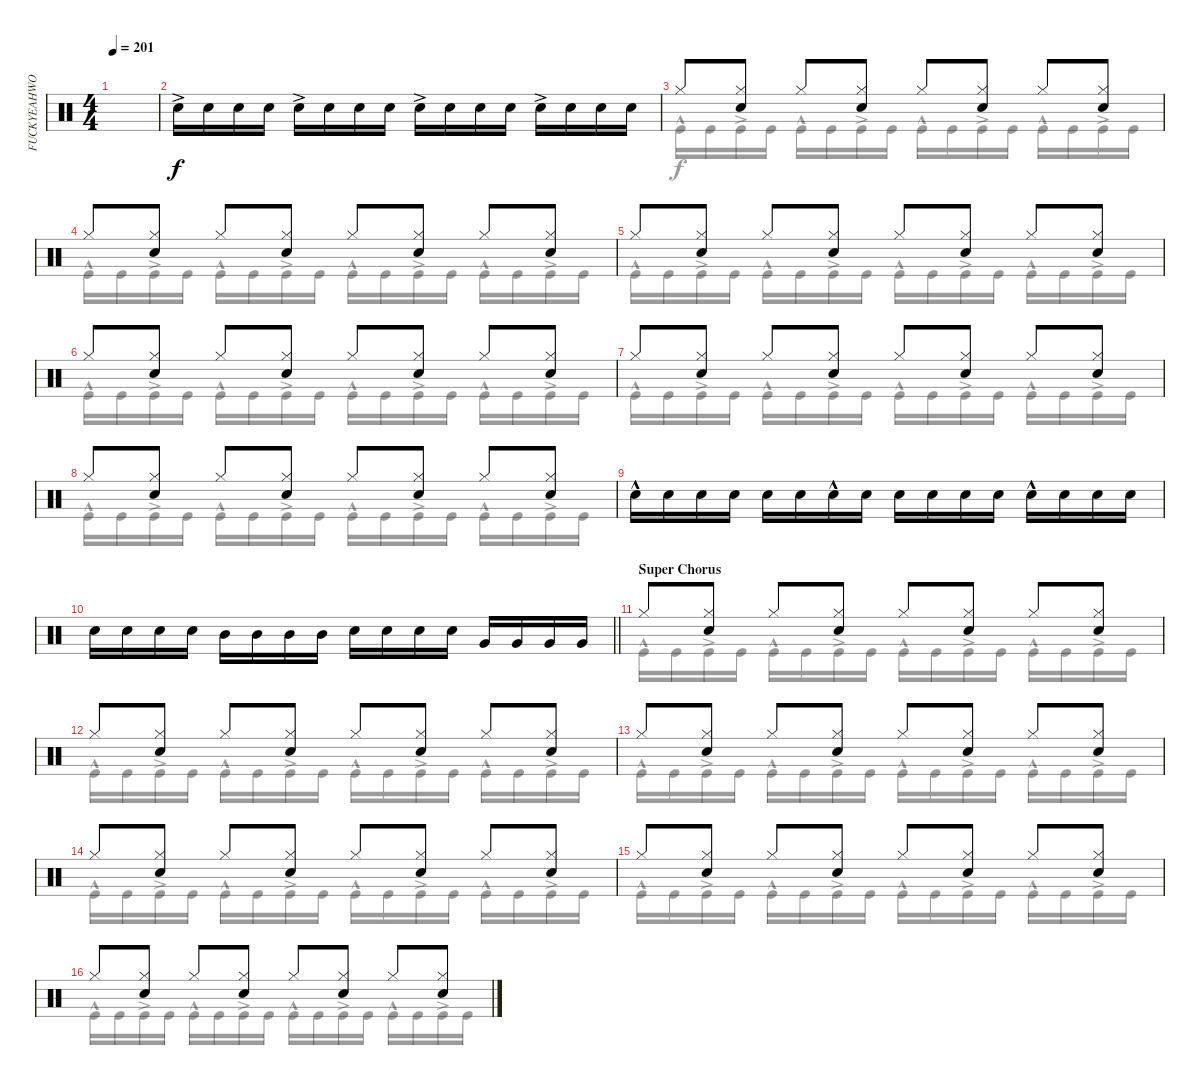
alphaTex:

\track ("FUCKYEAHWOOTDAVEMACKINTOSH(Percussion)" "FUCKYEAHWO") {instrument percussion}
\staff {score}
\articulation defaults
\voice
\ts (4 4)
\tempo 201
\clef neutral
\ks c
|
"Snare (hit) 2"{ac}.16 "Snare (hit) 2".16 "Snare (hit) 2".16 "Snare (hit) 2".16 "Snare (hit) 2"{ac}.16 "Snare (hit) 2".16 "Snare (hit) 2".16 "Snare (hit) 2".16 "Snare (hit) 2"{ac}.16 "Snare (hit) 2".16 "Snare (hit) 2".16 "Snare (hit) 2".16 "Snare (hit) 2"{ac}.16 "Snare (hit) 2".16 "Snare (hit) 2".16 "Snare (hit) 2".16 |
"Hi-Hat (closed)".8 ("Hi-Hat (closed)" "Snare (hit) 2").8 "Hi-Hat (closed)".8 ("Snare (hit) 2" "Hi-Hat (closed)").8 "Hi-Hat (closed)".8 ("Hi-Hat (closed)" "Snare (hit) 2").8 "Hi-Hat (closed)".8 ("Hi-Hat (closed)" "Snare (hit) 2").8 |
"Hi-Hat (closed)".8 ("Hi-Hat (closed)" "Snare (hit) 2").8 "Hi-Hat (closed)".8 ("Snare (hit) 2" "Hi-Hat (closed)").8 "Hi-Hat (closed)".8 ("Hi-Hat (closed)" "Snare (hit) 2").8 "Hi-Hat (closed)".8 ("Hi-Hat (closed)" "Snare (hit) 2").8 |
"Hi-Hat (closed)".8 ("Hi-Hat (closed)" "Snare (hit) 2").8 "Hi-Hat (closed)".8 ("Snare (hit) 2" "Hi-Hat (closed)").8 "Hi-Hat (closed)".8 ("Hi-Hat (closed)" "Snare (hit) 2").8 "Hi-Hat (closed)".8 ("Hi-Hat (closed)" "Snare (hit) 2").8 |
"Hi-Hat (closed)".8 ("Hi-Hat (closed)" "Snare (hit) 2").8 "Hi-Hat (closed)".8 ("Snare (hit) 2" "Hi-Hat (closed)").8 "Hi-Hat (closed)".8 ("Hi-Hat (closed)" "Snare (hit) 2").8 "Hi-Hat (closed)".8 ("Hi-Hat (closed)" "Snare (hit) 2").8 |
"Hi-Hat (closed)".8 ("Hi-Hat (closed)" "Snare (hit) 2").8 "Hi-Hat (closed)".8 ("Snare (hit) 2" "Hi-Hat (closed)").8 "Hi-Hat (closed)".8 ("Hi-Hat (closed)" "Snare (hit) 2").8 "Hi-Hat (closed)".8 ("Hi-Hat (closed)" "Snare (hit) 2").8 |
"Hi-Hat (closed)".8 ("Hi-Hat (closed)" "Snare (hit) 2").8 "Hi-Hat (closed)".8 ("Snare (hit) 2" "Hi-Hat (closed)").8 "Hi-Hat (closed)".8 ("Hi-Hat (closed)" "Snare (hit) 2").8 "Hi-Hat (closed)".8 ("Hi-Hat (closed)" "Snare (hit) 2").8 |
"Snare (hit) 2"{hac}.16 "Snare (hit) 2".16 "Snare (hit) 2".16 "Snare (hit) 2".16 "Snare (hit) 2".16 "Snare (hit) 2".16 "Snare (hit) 2"{hac}.16 "Snare (hit) 2".16 "Snare (hit) 2".16 "Snare (hit) 2".16 "Snare (hit) 2".16 "Snare (hit) 2".16 "Snare (hit) 2"{hac}.16 "Snare (hit) 2".16 "Snare (hit) 2".16 "Snare (hit) 2".16 |
\barLineRight lightlight "Snare (hit) 2".16 "Snare (hit) 2".16 "Snare (hit) 2".16 "Snare (hit) 2".16 "Mid Tom (hit)".16 "Mid Tom (hit)".16 "Mid Tom (hit)".16 "Mid Tom (hit)".16 "Snare (hit) 2".16 "Snare (hit) 2".16 "Snare (hit) 2".16 "Snare (hit) 2".16 "Very Low Tom (hit)".16 "Very Low Tom (hit)".16 "Very Low Tom (hit)".16 "Very Low Tom (hit)".16
|
\section ("" "Super Chorus")
"Hi-Hat (closed)".8 ("Hi-Hat (closed)" "Snare (hit) 2").8 "Hi-Hat (closed)".8 ("Snare (hit) 2" "Hi-Hat (closed)").8 "Hi-Hat (closed)".8 ("Hi-Hat (closed)" "Snare (hit) 2").8 "Hi-Hat (closed)".8 ("Hi-Hat (closed)" "Snare (hit) 2").8 |
"Hi-Hat (closed)".8 ("Hi-Hat (closed)" "Snare (hit) 2").8 "Hi-Hat (closed)".8 ("Snare (hit) 2" "Hi-Hat (closed)").8 "Hi-Hat (closed)".8 ("Hi-Hat (closed)" "Snare (hit) 2").8 "Hi-Hat (closed)".8 ("Hi-Hat (closed)" "Snare (hit) 2").8 |
"Hi-Hat (closed)".8 ("Hi-Hat (closed)" "Snare (hit) 2").8 "Hi-Hat (closed)".8 ("Snare (hit) 2" "Hi-Hat (closed)").8 "Hi-Hat (closed)".8 ("Hi-Hat (closed)" "Snare (hit) 2").8 "Hi-Hat (closed)".8 ("Hi-Hat (closed)" "Snare (hit) 2").8 |
"Hi-Hat (closed)".8 ("Hi-Hat (closed)" "Snare (hit) 2").8 "Hi-Hat (closed)".8 ("Snare (hit) 2" "Hi-Hat (closed)").8 "Hi-Hat (closed)".8 ("Hi-Hat (closed)" "Snare (hit) 2").8 "Hi-Hat (closed)".8 ("Hi-Hat (closed)" "Snare (hit) 2").8 |
"Hi-Hat (closed)".8 ("Hi-Hat (closed)" "Snare (hit) 2").8 "Hi-Hat (closed)".8 ("Snare (hit) 2" "Hi-Hat (closed)").8 "Hi-Hat (closed)".8 ("Hi-Hat (closed)" "Snare (hit) 2").8 "Hi-Hat (closed)".8 ("Hi-Hat (closed)" "Snare (hit) 2").8 |
"Hi-Hat (closed)".8 ("Hi-Hat (closed)" "Snare (hit) 2").8 "Hi-Hat (closed)".8 ("Snare (hit) 2" "Hi-Hat (closed)").8 "Hi-Hat (closed)".8 ("Hi-Hat (closed)" "Snare (hit) 2").8 "Hi-Hat (closed)".8 ("Hi-Hat (closed)" "Snare (hit) 2").8
\voice
\clef neutral
\ottava regular
\simile none
\ks c
|
|
"Kick (hit)"{hac}.16 "Kick (hit)".16 "Kick (hit)"{ac}.16 "Kick (hit)".16 "Kick (hit)"{hac}.16 "Kick (hit)".16 "Kick (hit)"{ac}.16 "Kick (hit)".16 "Kick (hit)"{hac}.16 "Kick (hit)".16 "Kick (hit)"{ac}.16 "Kick (hit)".16 "Kick (hit)"{hac}.16 "Kick (hit)".16 "Kick (hit)"{ac}.16 "Kick (hit)".16 |
"Kick (hit)"{hac}.16 "Kick (hit)".16 "Kick (hit)"{ac}.16 "Kick (hit)".16 "Kick (hit)"{hac}.16 "Kick (hit)".16 "Kick (hit)"{ac}.16 "Kick (hit)".16 "Kick (hit)"{hac}.16 "Kick (hit)".16 "Kick (hit)"{ac}.16 "Kick (hit)".16 "Kick (hit)"{hac}.16 "Kick (hit)".16 "Kick (hit)"{ac}.16 "Kick (hit)".16 |
"Kick (hit)"{hac}.16 "Kick (hit)".16 "Kick (hit)"{ac}.16 "Kick (hit)".16 "Kick (hit)"{hac}.16 "Kick (hit)".16 "Kick (hit)"{ac}.16 "Kick (hit)".16 "Kick (hit)"{hac}.16 "Kick (hit)".16 "Kick (hit)"{ac}.16 "Kick (hit)".16 "Kick (hit)"{hac}.16 "Kick (hit)".16 "Kick (hit)"{ac}.16 "Kick (hit)".16 |
"Kick (hit)"{hac}.16 "Kick (hit)".16 "Kick (hit)"{ac}.16 "Kick (hit)".16 "Kick (hit)"{hac}.16 "Kick (hit)".16 "Kick (hit)"{ac}.16 "Kick (hit)".16 "Kick (hit)"{hac}.16 "Kick (hit)".16 "Kick (hit)"{ac}.16 "Kick (hit)".16 "Kick (hit)"{hac}.16 "Kick (hit)".16 "Kick (hit)"{ac}.16 "Kick (hit)".16 |
"Kick (hit)"{hac}.16 "Kick (hit)".16 "Kick (hit)"{ac}.16 "Kick (hit)".16 "Kick (hit)"{hac}.16 "Kick (hit)".16 "Kick (hit)"{ac}.16 "Kick (hit)".16 "Kick (hit)"{hac}.16 "Kick (hit)".16 "Kick (hit)"{ac}.16 "Kick (hit)".16 "Kick (hit)"{hac}.16 "Kick (hit)".16 "Kick (hit)"{ac}.16 "Kick (hit)".16 |
"Kick (hit)"{hac}.16 "Kick (hit)".16 "Kick (hit)"{ac}.16 "Kick (hit)".16 "Kick (hit)"{hac}.16 "Kick (hit)".16 "Kick (hit)"{ac}.16 "Kick (hit)".16 "Kick (hit)"{hac}.16 "Kick (hit)".16 "Kick (hit)"{ac}.16 "Kick (hit)".16 "Kick (hit)"{hac}.16 "Kick (hit)".16 "Kick (hit)"{ac}.16 "Kick (hit)".16 |
|
\barLineRight lightlight
|
"Kick (hit)"{hac}.16 "Kick (hit)".16 "Kick (hit)"{ac}.16 "Kick (hit)".16 "Kick (hit)"{hac}.16 "Kick (hit)".16 "Kick (hit)"{ac}.16 "Kick (hit)".16 "Kick (hit)"{hac}.16 "Kick (hit)".16 "Kick (hit)"{ac}.16 "Kick (hit)".16 "Kick (hit)"{hac}.16 "Kick (hit)".16 "Kick (hit)"{ac}.16 "Kick (hit)".16 |
"Kick (hit)"{hac}.16 "Kick (hit)".16 "Kick (hit)"{ac}.16 "Kick (hit)".16 "Kick (hit)"{hac}.16 "Kick (hit)".16 "Kick (hit)"{ac}.16 "Kick (hit)".16 "Kick (hit)"{hac}.16 "Kick (hit)".16 "Kick (hit)"{ac}.16 "Kick (hit)".16 "Kick (hit)"{hac}.16 "Kick (hit)".16 "Kick (hit)"{ac}.16 "Kick (hit)".16 |
"Kick (hit)"{hac}.16 "Kick (hit)".16 "Kick (hit)"{ac}.16 "Kick (hit)".16 "Kick (hit)"{hac}.16 "Kick (hit)".16 "Kick (hit)"{ac}.16 "Kick (hit)".16 "Kick (hit)"{hac}.16 "Kick (hit)".16 "Kick (hit)"{ac}.16 "Kick (hit)".16 "Kick (hit)"{hac}.16 "Kick (hit)".16 "Kick (hit)"{ac}.16 "Kick (hit)".16 |
"Kick (hit)"{hac}.16 "Kick (hit)".16 "Kick (hit)"{ac}.16 "Kick (hit)".16 "Kick (hit)"{hac}.16 "Kick (hit)".16 "Kick (hit)"{ac}.16 "Kick (hit)".16 "Kick (hit)"{hac}.16 "Kick (hit)".16 "Kick (hit)"{ac}.16 "Kick (hit)".16 "Kick (hit)"{hac}.16 "Kick (hit)".16 "Kick (hit)"{ac}.16 "Kick (hit)".16 |
"Kick (hit)"{hac}.16 "Kick (hit)".16 "Kick (hit)"{ac}.16 "Kick (hit)".16 "Kick (hit)"{hac}.16 "Kick (hit)".16 "Kick (hit)"{ac}.16 "Kick (hit)".16 "Kick (hit)"{hac}.16 "Kick (hit)".16 "Kick (hit)"{ac}.16 "Kick (hit)".16 "Kick (hit)"{hac}.16 "Kick (hit)".16 "Kick (hit)"{ac}.16 "Kick (hit)".16 |
"Kick (hit)"{hac}.16 "Kick (hit)".16 "Kick (hit)"{ac}.16 "Kick (hit)".16 "Kick (hit)"{hac}.16 "Kick (hit)".16 "Kick (hit)"{ac}.16 "Kick (hit)".16 "Kick (hit)"{hac}.16 "Kick (hit)".16 "Kick (hit)"{ac}.16 "Kick (hit)".16 "Kick (hit)"{hac}.16 "Kick (hit)".16 "Kick (hit)"{ac}.16 "Kick (hit)".16
